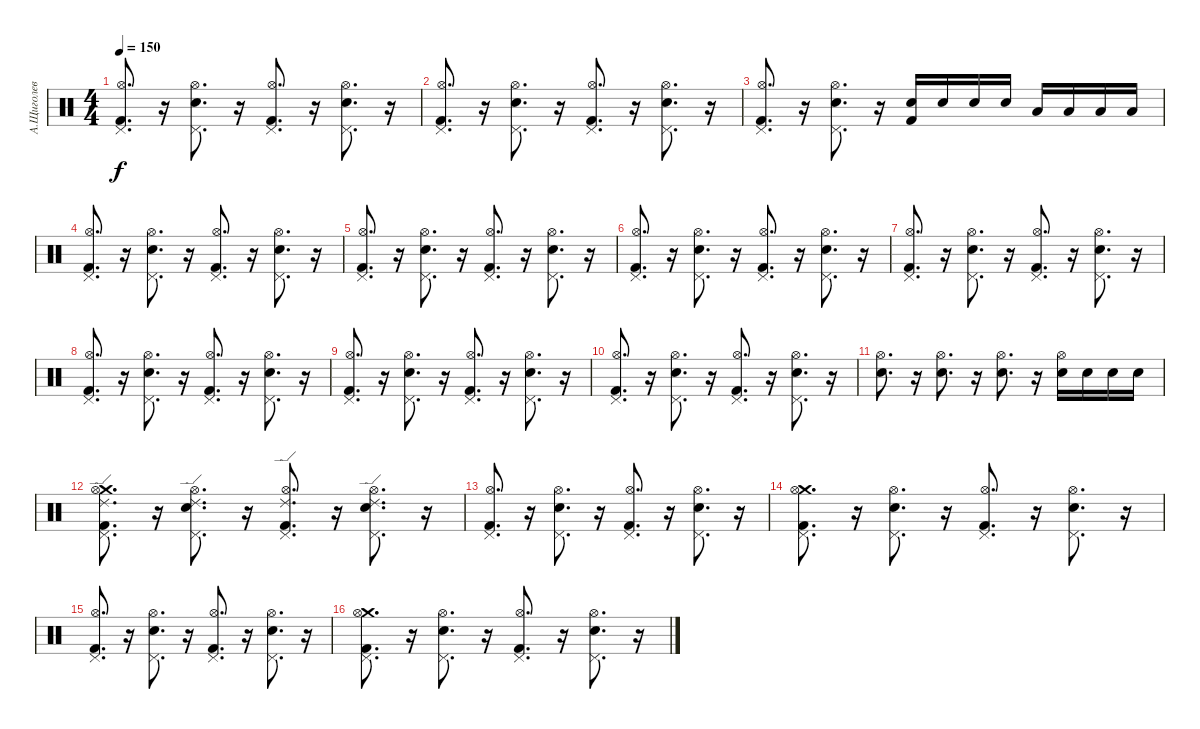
\track ("А.Щиголев" "А.Щиголев") {instrument percussion}
\staff {score}
\articulation defaults
\ts (4 4)
\tempo 150
\clef neutral
\ks c
("Kick (hit) 2" "Hi-Hat (open)" "Pedal Hi-Hat (hit)").8{d dy f} r.16 ("Snare (hit) 2" "Hi-Hat (open)" "Pedal Hi-Hat (hit)").8{d} r.16 ("Kick (hit) 2" "Hi-Hat (open)" "Pedal Hi-Hat (hit)").8{d} r.16 ("Snare (hit) 2" "Hi-Hat (open)" "Pedal Hi-Hat (hit)").8{d} r.16 |
("Kick (hit) 2" "Hi-Hat (open)" "Pedal Hi-Hat (hit)").8{d} r.16 ("Snare (hit) 2" "Hi-Hat (open)" "Pedal Hi-Hat (hit)").8{d} r.16 ("Kick (hit) 2" "Hi-Hat (open)" "Pedal Hi-Hat (hit)").8{d} r.16 ("Snare (hit) 2" "Hi-Hat (open)" "Pedal Hi-Hat (hit)").8{d} r.16 |
("Kick (hit) 2" "Hi-Hat (open)" "Pedal Hi-Hat (hit)").8{d} r.16 ("Snare (hit) 2" "Hi-Hat (open)" "Pedal Hi-Hat (hit)").8{d} r.16 ("Snare (hit) 2" "Kick (hit) 2").16 "Snare (hit) 2".16 "Snare (hit) 2".16 "Snare (hit) 2".16 "Low Floor Tom (hit)".16 "Low Floor Tom (hit)".16 "Low Floor Tom (hit)".16 "Low Floor Tom (hit)".16 |
("Kick (hit) 2" "Hi-Hat (open)" "Pedal Hi-Hat (hit)").8{d} r.16 ("Snare (hit) 2" "Hi-Hat (open)" "Pedal Hi-Hat (hit)").8{d} r.16 ("Kick (hit) 2" "Hi-Hat (open)" "Pedal Hi-Hat (hit)").8{d} r.16 ("Snare (hit) 2" "Hi-Hat (open)" "Pedal Hi-Hat (hit)").8{d} r.16 |
("Kick (hit) 2" "Hi-Hat (open)" "Pedal Hi-Hat (hit)").8{d} r.16 ("Snare (hit) 2" "Hi-Hat (open)" "Pedal Hi-Hat (hit)").8{d} r.16 ("Kick (hit) 2" "Hi-Hat (open)" "Pedal Hi-Hat (hit)").8{d} r.16 ("Snare (hit) 2" "Hi-Hat (open)" "Pedal Hi-Hat (hit)").8{d} r.16 |
("Kick (hit) 2" "Hi-Hat (open)" "Pedal Hi-Hat (hit)").8{d} r.16 ("Snare (hit) 2" "Hi-Hat (open)" "Pedal Hi-Hat (hit)").8{d} r.16 ("Kick (hit) 2" "Hi-Hat (open)" "Pedal Hi-Hat (hit)").8{d} r.16 ("Snare (hit) 2" "Hi-Hat (open)" "Pedal Hi-Hat (hit)").8{d} r.16 |
("Kick (hit) 2" "Hi-Hat (open)" "Pedal Hi-Hat (hit)").8{d} r.16 ("Snare (hit) 2" "Hi-Hat (open)" "Pedal Hi-Hat (hit)").8{d} r.16 ("Kick (hit) 2" "Hi-Hat (open)" "Pedal Hi-Hat (hit)").8{d} r.16 ("Snare (hit) 2" "Hi-Hat (open)" "Pedal Hi-Hat (hit)").8{d} r.16 |
("Kick (hit) 2" "Hi-Hat (open)" "Pedal Hi-Hat (hit)").8{d} r.16 ("Snare (hit) 2" "Hi-Hat (open)" "Pedal Hi-Hat (hit)").8{d} r.16 ("Kick (hit) 2" "Hi-Hat (open)" "Pedal Hi-Hat (hit)").8{d} r.16 ("Snare (hit) 2" "Hi-Hat (open)" "Pedal Hi-Hat (hit)").8{d} r.16 |
("Kick (hit) 2" "Hi-Hat (open)" "Pedal Hi-Hat (hit)").8{d} r.16 ("Snare (hit) 2" "Hi-Hat (open)" "Pedal Hi-Hat (hit)").8{d} r.16 ("Kick (hit) 2" "Hi-Hat (open)" "Pedal Hi-Hat (hit)").8{d} r.16 ("Snare (hit) 2" "Hi-Hat (open)" "Pedal Hi-Hat (hit)").8{d} r.16 |
("Kick (hit) 2" "Hi-Hat (open)" "Pedal Hi-Hat (hit)").8{d} r.16 ("Snare (hit) 2" "Hi-Hat (open)" "Pedal Hi-Hat (hit)").8{d} r.16 ("Kick (hit) 2" "Hi-Hat (open)" "Pedal Hi-Hat (hit)").8{d} r.16 ("Snare (hit) 2" "Hi-Hat (open)" "Pedal Hi-Hat (hit)").8{d} r.16 |
("Snare (hit) 2" "Hi-Hat (open)").8{d} r.16 ("Snare (hit) 2" "Hi-Hat (open)").8{d} r.16 ("Snare (hit) 2" "Hi-Hat (open)").8{d} r.16 ("Snare (hit) 2" "Hi-Hat (open)").16 "Snare (hit) 2".16 "Snare (hit) 2".16 "Snare (hit) 2".16 |
("Ride (edge) 2" "Crash medium (hit)" "Kick (hit) 2" "Hi-Hat (open)" "Pedal Hi-Hat (hit)").8{d} r.16 ("Ride (edge) 2" "Snare (hit) 2" "Hi-Hat (open)" "Pedal Hi-Hat (hit)").8{d} r.16 ("Ride (edge) 2" "Kick (hit) 2" "Hi-Hat (open)" "Pedal Hi-Hat (hit)").8{d} r.16 ("Ride (edge) 2" "Snare (hit) 2" "Hi-Hat (open)" "Pedal Hi-Hat (hit)").8{d} r.16 |
("Kick (hit) 2" "Hi-Hat (open)" "Pedal Hi-Hat (hit)").8{d} r.16 ("Snare (hit) 2" "Hi-Hat (open)" "Pedal Hi-Hat (hit)").8{d} r.16 ("Kick (hit) 2" "Hi-Hat (open)" "Pedal Hi-Hat (hit)").8{d} r.16 ("Snare (hit) 2" "Hi-Hat (open)" "Pedal Hi-Hat (hit)").8{d} r.16 |
("Crash medium (hit)" "Kick (hit) 2" "Hi-Hat (open)" "Pedal Hi-Hat (hit)").8{d} r.16 ("Snare (hit) 2" "Hi-Hat (open)" "Pedal Hi-Hat (hit)").8{d} r.16 ("Kick (hit) 2" "Hi-Hat (open)" "Pedal Hi-Hat (hit)").8{d} r.16 ("Snare (hit) 2" "Hi-Hat (open)" "Pedal Hi-Hat (hit)").8{d} r.16 |
("Kick (hit) 2" "Hi-Hat (open)" "Pedal Hi-Hat (hit)").8{d} r.16 ("Snare (hit) 2" "Hi-Hat (open)" "Pedal Hi-Hat (hit)").8{d} r.16 ("Kick (hit) 2" "Hi-Hat (open)" "Pedal Hi-Hat (hit)").8{d} r.16 ("Snare (hit) 2" "Hi-Hat (open)" "Pedal Hi-Hat (hit)").8{d} r.16 |
("Crash medium (hit)" "Kick (hit) 2" "Hi-Hat (open)" "Pedal Hi-Hat (hit)").8{d} r.16 ("Snare (hit) 2" "Hi-Hat (open)" "Pedal Hi-Hat (hit)").8{d} r.16 ("Kick (hit) 2" "Hi-Hat (open)" "Pedal Hi-Hat (hit)").8{d} r.16 ("Snare (hit) 2" "Hi-Hat (open)" "Pedal Hi-Hat (hit)").8{d} r.16
